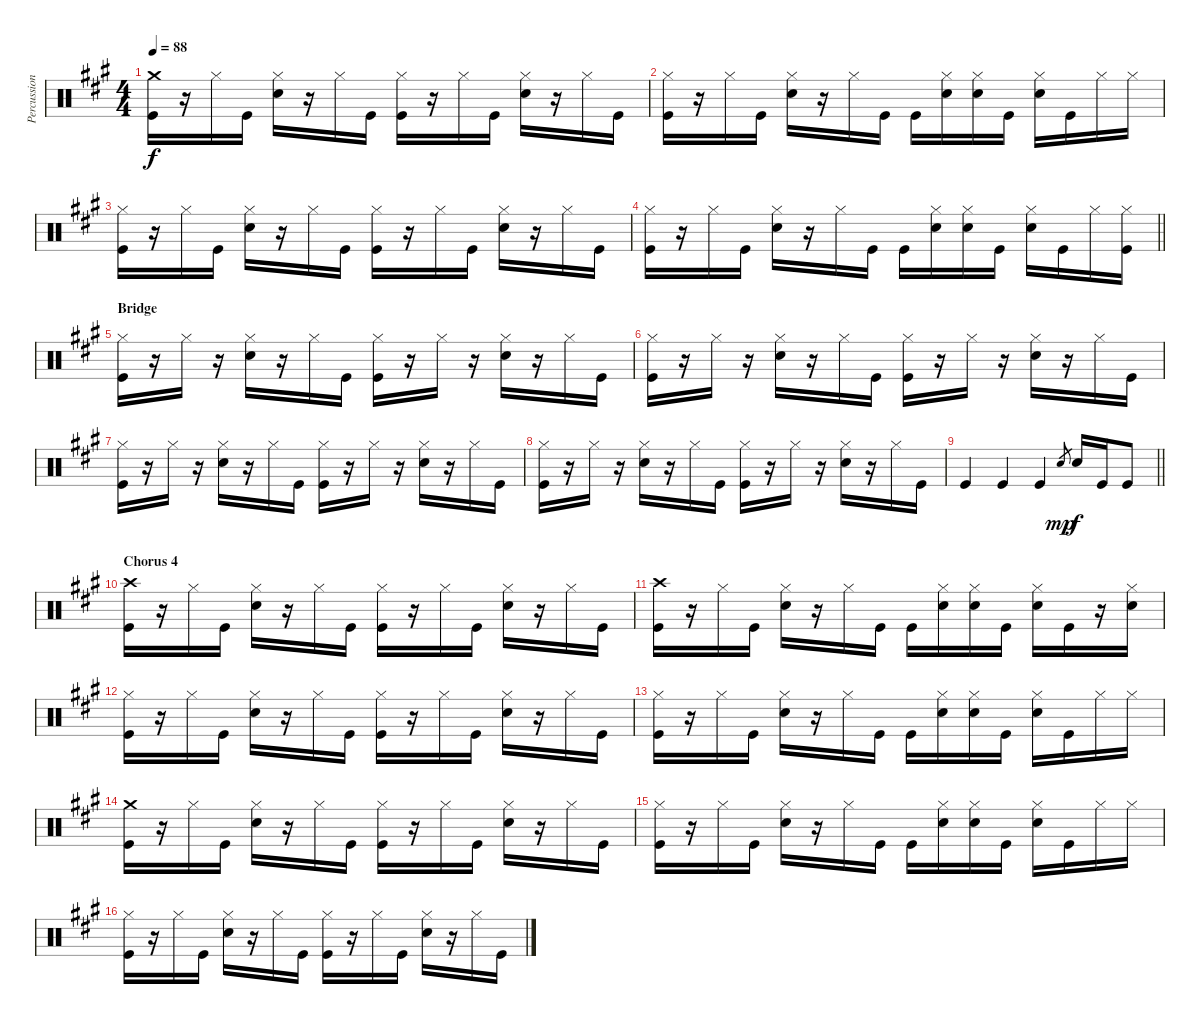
\track ("Percussion" "Percussion") {instrument percussion}
\staff {score}
\articulation defaults
\ts (4 4)
\tempo 88
\clef neutral
\ks a
("Crash medium (hit)" "Kick (hit)").16{dy f} r.16 "Hi-Hat (closed)".16 "Kick (hit)".16 ("Hi-Hat (closed)" "Snare (hit) 2").16 r.16 "Hi-Hat (closed)".16 "Kick (hit)".16 ("Hi-Hat (closed)" "Kick (hit)").16 r.16 "Hi-Hat (closed)".16 "Kick (hit)".16 ("Hi-Hat (closed)" "Snare (hit) 2").16 r.16 "Hi-Hat (closed)".16 "Kick (hit)".16 |
("Hi-Hat (closed)" "Kick (hit)").16 r.16 "Hi-Hat (closed)".16 "Kick (hit)".16 ("Hi-Hat (closed)" "Snare (hit) 2").16 r.16 "Hi-Hat (closed)".16 "Kick (hit)".16 "Kick (hit)".16 ("Hi-Hat (closed)" "Snare (hit) 2").16 ("Hi-Hat (closed)" "Snare (hit) 2").16 "Kick (hit)".16 ("Hi-Hat (closed)" "Snare (hit) 2").16 "Kick (hit)".16 "Hi-Hat (closed)".16 "Hi-Hat (closed)".16 |
("Hi-Hat (closed)" "Kick (hit)").16 r.16 "Hi-Hat (closed)".16 "Kick (hit)".16 ("Hi-Hat (closed)" "Snare (hit) 2").16 r.16 "Hi-Hat (closed)".16 "Kick (hit)".16 ("Hi-Hat (closed)" "Kick (hit)").16 r.16 "Hi-Hat (closed)".16 "Kick (hit)".16 ("Hi-Hat (closed)" "Snare (hit) 2").16 r.16 "Hi-Hat (closed)".16 "Kick (hit)".16 |
\barLineRight lightlight
("Hi-Hat (closed)" "Kick (hit)").16 r.16 "Hi-Hat (closed)".16 "Kick (hit)".16 ("Hi-Hat (closed)" "Snare (hit) 2").16 r.16 "Hi-Hat (closed)".16 "Kick (hit)".16 "Kick (hit)".16 ("Hi-Hat (closed)" "Snare (hit) 2").16 ("Hi-Hat (closed)" "Snare (hit) 2").16 "Kick (hit)".16 ("Hi-Hat (closed)" "Snare (hit) 2").16 "Kick (hit)".16 "Hi-Hat (closed)".16 ("Hi-Hat (closed)" "Kick (hit)").16 |
\section ("" "Bridge")
("Hi-Hat (closed)" "Kick (hit)").16 r.16 "Hi-Hat (closed)".16 r.16 ("Hi-Hat (closed)" "Snare (hit) 2").16 r.16 "Hi-Hat (closed)".16 "Kick (hit)".16 ("Hi-Hat (closed)" "Kick (hit)").16 r.16 "Hi-Hat (closed)".16 r.16 ("Hi-Hat (closed)" "Snare (hit) 2").16 r.16 "Hi-Hat (closed)".16 "Kick (hit)".16 |
("Hi-Hat (closed)" "Kick (hit)").16 r.16 "Hi-Hat (closed)".16 r.16 ("Hi-Hat (closed)" "Snare (hit) 2").16 r.16 "Hi-Hat (closed)".16 "Kick (hit)".16 ("Hi-Hat (closed)" "Kick (hit)").16 r.16 "Hi-Hat (closed)".16 r.16 ("Hi-Hat (closed)" "Snare (hit) 2").16 r.16 "Hi-Hat (closed)".16 "Kick (hit)".16 |
("Hi-Hat (closed)" "Kick (hit)").16 r.16 "Hi-Hat (closed)".16 r.16 ("Hi-Hat (closed)" "Snare (hit) 2").16 r.16 "Hi-Hat (closed)".16 "Kick (hit)".16 ("Hi-Hat (closed)" "Kick (hit)").16 r.16 "Hi-Hat (closed)".16 r.16 ("Hi-Hat (closed)" "Snare (hit) 2").16 r.16 "Hi-Hat (closed)".16 "Kick (hit)".16 |
("Hi-Hat (closed)" "Kick (hit)").16 r.16 "Hi-Hat (closed)".16 r.16 ("Hi-Hat (closed)" "Snare (hit) 2").16 r.16 "Hi-Hat (closed)".16 "Kick (hit)".16 ("Hi-Hat (closed)" "Kick (hit)").16 r.16 "Hi-Hat (closed)".16 r.16 ("Hi-Hat (closed)" "Snare (hit) 2").16 r.16 "Hi-Hat (closed)".16 "Kick (hit)".16 |
\barLineRight lightlight "Kick (hit)".4 "Kick (hit)".4 "Kick (hit)".4 "Snare (hit) 2".8{gr dy mp} "Snare (hit) 2".16{dy f} "Kick (hit)".16 "Kick (hit)".8
|
\section ("" "Chorus 4")
("Crash high (hit)" "Kick (hit)").16 r.16 "Hi-Hat (closed)".16 "Kick (hit)".16 ("Hi-Hat (closed)" "Snare (hit) 2").16 r.16 "Hi-Hat (closed)".16 "Kick (hit)".16 ("Hi-Hat (closed)" "Kick (hit)").16 r.16 "Hi-Hat (closed)".16 "Kick (hit)".16 ("Hi-Hat (closed)" "Snare (hit) 2").16 r.16 "Hi-Hat (closed)".16 "Kick (hit)".16 |
("Crash high (hit)" "Kick (hit)").16 r.16 "Hi-Hat (closed)".16 "Kick (hit)".16 ("Hi-Hat (closed)" "Snare (hit) 2").16 r.16 "Hi-Hat (closed)".16 "Kick (hit)".16 "Kick (hit)".16 ("Hi-Hat (closed)" "Snare (hit) 2").16 ("Hi-Hat (closed)" "Snare (hit) 2").16 "Kick (hit)".16 ("Hi-Hat (closed)" "Snare (hit) 2").16 "Kick (hit)".16 r.16 ("Hi-Hat (closed)" "Snare (hit) 2").16 |
("Hi-Hat (closed)" "Kick (hit)").16 r.16 "Hi-Hat (closed)".16 "Kick (hit)".16 ("Hi-Hat (closed)" "Snare (hit) 2").16 r.16 "Hi-Hat (closed)".16 "Kick (hit)".16 ("Hi-Hat (closed)" "Kick (hit)").16 r.16 "Hi-Hat (closed)".16 "Kick (hit)".16 ("Hi-Hat (closed)" "Snare (hit) 2").16 r.16 "Hi-Hat (closed)".16 "Kick (hit)".16 |
("Hi-Hat (closed)" "Kick (hit)").16 r.16 "Hi-Hat (closed)".16 "Kick (hit)".16 ("Hi-Hat (closed)" "Snare (hit) 2").16 r.16 "Hi-Hat (closed)".16 "Kick (hit)".16 "Kick (hit)".16 ("Hi-Hat (closed)" "Snare (hit) 2").16 ("Hi-Hat (closed)" "Snare (hit) 2").16 "Kick (hit)".16 ("Hi-Hat (closed)" "Snare (hit) 2").16 "Kick (hit)".16 "Hi-Hat (closed)".16 "Hi-Hat (closed)".16 |
("Crash medium (hit)" "Kick (hit)").16 r.16 "Hi-Hat (closed)".16 "Kick (hit)".16 ("Hi-Hat (closed)" "Snare (hit) 2").16 r.16 "Hi-Hat (closed)".16 "Kick (hit)".16 ("Hi-Hat (closed)" "Kick (hit)").16 r.16 "Hi-Hat (closed)".16 "Kick (hit)".16 ("Hi-Hat (closed)" "Snare (hit) 2").16 r.16 "Hi-Hat (closed)".16 "Kick (hit)".16 |
("Hi-Hat (closed)" "Kick (hit)").16 r.16 "Hi-Hat (closed)".16 "Kick (hit)".16 ("Hi-Hat (closed)" "Snare (hit) 2").16 r.16 "Hi-Hat (closed)".16 "Kick (hit)".16 "Kick (hit)".16 ("Hi-Hat (closed)" "Snare (hit) 2").16 ("Hi-Hat (closed)" "Snare (hit) 2").16 "Kick (hit)".16 ("Hi-Hat (closed)" "Snare (hit) 2").16 "Kick (hit)".16 "Hi-Hat (closed)".16 "Hi-Hat (closed)".16 |
("Hi-Hat (closed)" "Kick (hit)").16 r.16 "Hi-Hat (closed)".16 "Kick (hit)".16 ("Hi-Hat (closed)" "Snare (hit) 2").16 r.16 "Hi-Hat (closed)".16 "Kick (hit)".16 ("Hi-Hat (closed)" "Kick (hit)").16 r.16 "Hi-Hat (closed)".16 "Kick (hit)".16 ("Hi-Hat (closed)" "Snare (hit) 2").16 r.16 "Hi-Hat (closed)".16 "Kick (hit)".16
